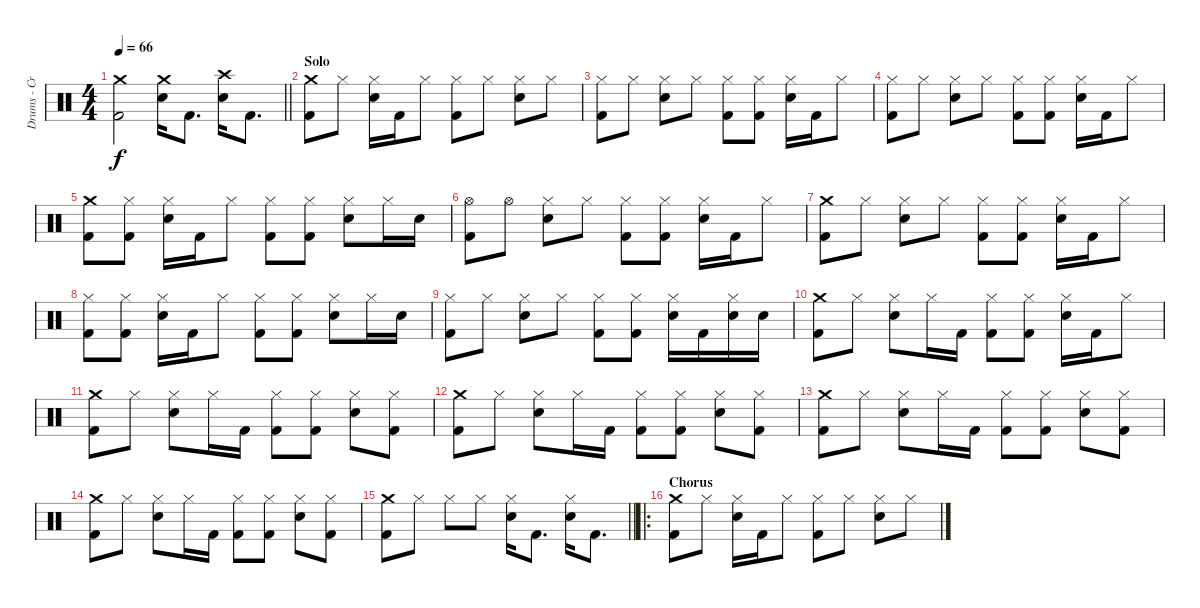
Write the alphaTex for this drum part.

\track ("Drums - Craig" "Drums - Cr") {instrument percussion}
\staff {score}
\articulation defaults
\ts (4 4)
\tempo 66
\clef neutral
\barLineRight lightlight
\ks c
("Crash medium (hit)" "Kick (hit) 2").2{dy f} ("Crash medium (hit)" "Snare (hit) 2").16 "Kick (hit) 2".8{d} ("Crash high (hit)" "Snare (hit) 2").16 "Kick (hit) 2".8{d} |
\section ("" "Solo")
("Crash medium (hit)" "Kick (hit) 2").8 "Hi-Hat (closed)".8 ("Hi-Hat (closed)" "Snare (hit) 2").16 "Kick (hit) 2".16 "Hi-Hat (closed)".8 ("Hi-Hat (closed)" "Kick (hit) 2").8 "Hi-Hat (closed)".8 ("Hi-Hat (closed)" "Snare (hit) 2").8 "Hi-Hat (closed)".8 |
("Hi-Hat (closed)" "Kick (hit) 2").8 "Hi-Hat (closed)".8 ("Hi-Hat (closed)" "Snare (hit) 2").8 "Hi-Hat (closed)".8 ("Hi-Hat (closed)" "Kick (hit) 2").8 ("Hi-Hat (closed)" "Kick (hit) 2").8 ("Hi-Hat (closed)" "Snare (hit) 2").16 "Kick (hit) 2".16 "Hi-Hat (closed)".8 |
("Hi-Hat (closed)" "Kick (hit) 2").8 "Hi-Hat (closed)".8 ("Hi-Hat (closed)" "Snare (hit) 2").8 "Hi-Hat (closed)".8 ("Hi-Hat (closed)" "Kick (hit) 2").8 ("Hi-Hat (closed)" "Kick (hit) 2").8 ("Hi-Hat (closed)" "Snare (hit) 2").16 "Kick (hit) 2".16 "Hi-Hat (closed)".8 |
("Crash medium (hit)" "Kick (hit) 2").8 ("Hi-Hat (closed)" "Kick (hit) 2").8 ("Hi-Hat (closed)" "Snare (hit) 2").16 "Kick (hit) 2".16 "Hi-Hat (closed)".8 ("Hi-Hat (closed)" "Kick (hit) 2").8 ("Hi-Hat (closed)" "Kick (hit) 2").8 ("Hi-Hat (closed)" "Snare (hit) 2").8 "Hi-Hat (closed)".16 "Snare (hit) 2".16 |
("Hi-Hat (open)" "Kick (hit) 2").8 "Hi-Hat (open)".8 ("Hi-Hat (closed)" "Snare (hit) 2").8 "Hi-Hat (closed)".8 ("Hi-Hat (closed)" "Kick (hit) 2").8 ("Hi-Hat (closed)" "Kick (hit) 2").8 ("Hi-Hat (closed)" "Snare (hit) 2").16 "Kick (hit) 2".16 "Hi-Hat (closed)".8 |
("Crash medium (hit)" "Kick (hit) 2").8 "Hi-Hat (closed)".8 ("Hi-Hat (closed)" "Snare (hit) 2").8 "Hi-Hat (closed)".8 ("Hi-Hat (closed)" "Kick (hit) 2").8 ("Hi-Hat (closed)" "Kick (hit) 2").8 ("Hi-Hat (closed)" "Snare (hit) 2").16 "Kick (hit) 2".16 "Hi-Hat (closed)".8 |
("Hi-Hat (closed)" "Kick (hit) 2").8 ("Hi-Hat (closed)" "Kick (hit) 2").8 ("Hi-Hat (closed)" "Snare (hit) 2").16 "Kick (hit) 2".16 "Hi-Hat (closed)".8 ("Hi-Hat (closed)" "Kick (hit) 2").8 ("Hi-Hat (closed)" "Kick (hit) 2").8 ("Hi-Hat (closed)" "Snare (hit) 2").8 "Hi-Hat (closed)".16 "Snare (hit) 2".16 |
("Hi-Hat (closed)" "Kick (hit) 2").8 "Hi-Hat (closed)".8 ("Hi-Hat (closed)" "Snare (hit) 2").8 "Hi-Hat (closed)".8 ("Hi-Hat (closed)" "Kick (hit) 2").8 ("Hi-Hat (closed)" "Kick (hit) 2").8 ("Hi-Hat (closed)" "Snare (hit) 2").16 "Kick (hit) 2".16 ("Hi-Hat (closed)" "Snare (hit) 2").16 "Snare (hit) 2".16 |
("Crash medium (hit)" "Kick (hit) 2").8 "Hi-Hat (closed)".8 ("Hi-Hat (closed)" "Snare (hit) 2").8 "Hi-Hat (closed)".16 "Kick (hit) 2".16 ("Hi-Hat (closed)" "Kick (hit) 2").8 ("Hi-Hat (closed)" "Kick (hit) 2").8 ("Hi-Hat (closed)" "Snare (hit) 2").16 "Kick (hit) 2".16 "Hi-Hat (closed)".8 |
("Crash medium (hit)" "Kick (hit) 2").8 "Hi-Hat (closed)".8 ("Hi-Hat (closed)" "Snare (hit) 2").8 "Hi-Hat (closed)".16 "Kick (hit) 2".16 ("Hi-Hat (closed)" "Kick (hit) 2").8 ("Hi-Hat (closed)" "Kick (hit) 2").8 ("Hi-Hat (closed)" "Snare (hit) 2").8 ("Hi-Hat (closed)" "Kick (hit) 2").8 |
("Crash medium (hit)" "Kick (hit) 2").8 "Hi-Hat (closed)".8 ("Hi-Hat (closed)" "Snare (hit) 2").8 "Hi-Hat (closed)".16 "Kick (hit) 2".16 ("Hi-Hat (closed)" "Kick (hit) 2").8 ("Hi-Hat (closed)" "Kick (hit) 2").8 ("Hi-Hat (closed)" "Snare (hit) 2").8 ("Hi-Hat (closed)" "Kick (hit) 2").8 |
("Crash medium (hit)" "Kick (hit) 2").8 "Hi-Hat (closed)".8 ("Hi-Hat (closed)" "Snare (hit) 2").8 "Hi-Hat (closed)".16 "Kick (hit) 2".16 ("Hi-Hat (closed)" "Kick (hit) 2").8 ("Hi-Hat (closed)" "Kick (hit) 2").8 ("Hi-Hat (closed)" "Snare (hit) 2").8 ("Hi-Hat (closed)" "Kick (hit) 2").8 |
("Crash medium (hit)" "Kick (hit) 2").8 "Hi-Hat (closed)".8 ("Hi-Hat (closed)" "Snare (hit) 2").8 "Hi-Hat (closed)".16 "Kick (hit) 2".16 ("Hi-Hat (closed)" "Kick (hit) 2").8 ("Hi-Hat (closed)" "Kick (hit) 2").8 ("Hi-Hat (closed)" "Snare (hit) 2").8 ("Hi-Hat (closed)" "Kick (hit) 2").8 |
\barLineRight lightlight
("Crash medium (hit)" "Kick (hit) 2").8 "Hi-Hat (closed)".8 "Hi-Hat (closed)".8 "Hi-Hat (closed)".8 ("Hi-Hat (closed)" "Snare (hit) 2").16 "Kick (hit) 2".8{d} ("Hi-Hat (closed)" "Snare (hit) 2").16 "Kick (hit) 2".8{d} |
\ro
\section ("" "Chorus")
("Crash medium (hit)" "Kick (hit) 2").8 "Hi-Hat (closed)".8 ("Hi-Hat (closed)" "Snare (hit) 2").16 "Kick (hit) 2".16 "Hi-Hat (closed)".8 ("Hi-Hat (closed)" "Kick (hit) 2").8 "Hi-Hat (closed)".8 ("Hi-Hat (closed)" "Snare (hit) 2").8 "Hi-Hat (closed)".8
